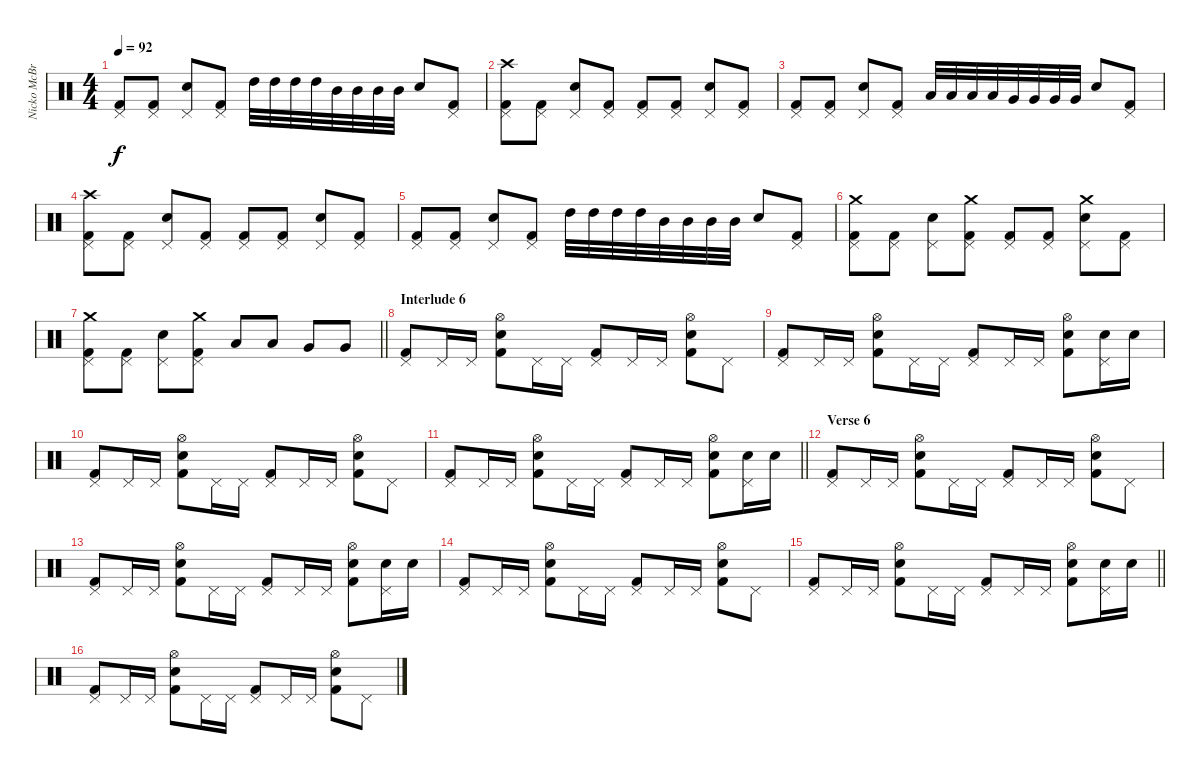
\track ("Nicko McBrain" "Nicko McBr") {instrument percussion}
\staff {score}
\articulation defaults
\ts (4 4)
\tempo 92
\clef neutral
\ks c
("Pedal Hi-Hat (hit)" "Kick (hit) 2").8{dy f} ("Pedal Hi-Hat (hit)" "Kick (hit) 2").8 ("Electric Snare (hit)" "Pedal Hi-Hat (hit)").8 ("Pedal Hi-Hat (hit)" "Kick (hit) 2").8 "High Tom (hit)".32 "High Tom (hit)".32 "High Tom (hit)".32 "High Tom (hit)".32 "Mid Tom (hit)".32 "Mid Tom (hit)".32 "Mid Tom (hit)".32 "Mid Tom (hit)".32 "Electric Snare (hit)".8 ("Pedal Hi-Hat (hit)" "Kick (hit) 2").8 |
("Pedal Hi-Hat (hit)" "Crash high (hit)" "Kick (hit) 2").8 ("Pedal Hi-Hat (hit)" "Kick (hit) 2").8 ("Electric Snare (hit)" "Pedal Hi-Hat (hit)").8 ("Pedal Hi-Hat (hit)" "Kick (hit) 2").8 ("Pedal Hi-Hat (hit)" "Kick (hit) 2").8 ("Pedal Hi-Hat (hit)" "Kick (hit) 2").8 ("Electric Snare (hit)" "Pedal Hi-Hat (hit)").8 ("Pedal Hi-Hat (hit)" "Kick (hit) 2").8 |
("Pedal Hi-Hat (hit)" "Kick (hit) 2").8 ("Pedal Hi-Hat (hit)" "Kick (hit) 2").8 ("Electric Snare (hit)" "Pedal Hi-Hat (hit)").8 ("Pedal Hi-Hat (hit)" "Kick (hit) 2").8 "Low Tom (hit)".32 "Low Tom (hit)".32 "Low Tom (hit)".32 "Low Tom (hit)".32 "Very Low Tom (hit)".32 "Very Low Tom (hit)".32 "Very Low Tom (hit)".32 "Very Low Tom (hit)".32 "Electric Snare (hit)".8 ("Pedal Hi-Hat (hit)" "Kick (hit) 2").8 |
("Pedal Hi-Hat (hit)" "Crash high (hit)" "Kick (hit) 2").8 ("Pedal Hi-Hat (hit)" "Kick (hit) 2").8 ("Electric Snare (hit)" "Pedal Hi-Hat (hit)").8 ("Pedal Hi-Hat (hit)" "Kick (hit) 2").8 ("Pedal Hi-Hat (hit)" "Kick (hit) 2").8 ("Pedal Hi-Hat (hit)" "Kick (hit) 2").8 ("Electric Snare (hit)" "Pedal Hi-Hat (hit)").8 ("Pedal Hi-Hat (hit)" "Kick (hit) 2").8 |
("Pedal Hi-Hat (hit)" "Kick (hit) 2").8 ("Pedal Hi-Hat (hit)" "Kick (hit) 2").8 ("Electric Snare (hit)" "Pedal Hi-Hat (hit)").8 ("Pedal Hi-Hat (hit)" "Kick (hit) 2").8 "High Tom (hit)".32 "High Tom (hit)".32 "High Tom (hit)".32 "High Tom (hit)".32 "Mid Tom (hit)".32 "Mid Tom (hit)".32 "Mid Tom (hit)".32 "Mid Tom (hit)".32 "Electric Snare (hit)".8 ("Pedal Hi-Hat (hit)" "Kick (hit) 2").8 |
("Pedal Hi-Hat (hit)" "Crash medium (hit)" "Kick (hit) 2").8 ("Pedal Hi-Hat (hit)" "Kick (hit) 2").8 ("Electric Snare (hit)" "Pedal Hi-Hat (hit)").8 ("Pedal Hi-Hat (hit)" "Crash medium (hit)" "Kick (hit) 2").8 ("Pedal Hi-Hat (hit)" "Kick (hit) 2").8 ("Pedal Hi-Hat (hit)" "Kick (hit) 2").8 ("Electric Snare (hit)" "Pedal Hi-Hat (hit)" "Crash medium (hit)").8 ("Pedal Hi-Hat (hit)" "Kick (hit) 2").8 |
\barLineRight lightlight
("Pedal Hi-Hat (hit)" "Crash medium (hit)" "Kick (hit) 2").8 ("Pedal Hi-Hat (hit)" "Kick (hit) 2").8 ("Electric Snare (hit)" "Pedal Hi-Hat (hit)").8 ("Pedal Hi-Hat (hit)" "Crash medium (hit)" "Kick (hit) 2").8 "Low Tom (hit)".8 "Low Tom (hit)".8 "Very Low Tom (hit)".8 "Very Low Tom (hit)".8 |
\section ("" "Interlude 6")
("Pedal Hi-Hat (hit)" "Kick (hit) 2").8 "Pedal Hi-Hat (hit)".16 "Pedal Hi-Hat (hit)".16 ("Electric Snare (hit)" "Hi-Hat (open)" "Kick (hit) 2").8 "Pedal Hi-Hat (hit)".16 "Pedal Hi-Hat (hit)".16 ("Pedal Hi-Hat (hit)" "Kick (hit) 2").8 "Pedal Hi-Hat (hit)".16 "Pedal Hi-Hat (hit)".16 ("Electric Snare (hit)" "Hi-Hat (open)" "Kick (hit) 2").8 "Pedal Hi-Hat (hit)".8 |
("Pedal Hi-Hat (hit)" "Kick (hit) 2").8 "Pedal Hi-Hat (hit)".16 "Pedal Hi-Hat (hit)".16 ("Electric Snare (hit)" "Hi-Hat (open)" "Kick (hit) 2").8 "Pedal Hi-Hat (hit)".16 "Pedal Hi-Hat (hit)".16 ("Pedal Hi-Hat (hit)" "Kick (hit) 2").8 "Pedal Hi-Hat (hit)".16 "Pedal Hi-Hat (hit)".16 ("Electric Snare (hit)" "Hi-Hat (open)" "Kick (hit) 2").8 ("Pedal Hi-Hat (hit)" "Electric Snare (hit)").16 "Electric Snare (hit)".16 |
("Pedal Hi-Hat (hit)" "Kick (hit) 2").8 "Pedal Hi-Hat (hit)".16 "Pedal Hi-Hat (hit)".16 ("Electric Snare (hit)" "Hi-Hat (open)" "Kick (hit) 2").8 "Pedal Hi-Hat (hit)".16 "Pedal Hi-Hat (hit)".16 ("Pedal Hi-Hat (hit)" "Kick (hit) 2").8 "Pedal Hi-Hat (hit)".16 "Pedal Hi-Hat (hit)".16 ("Electric Snare (hit)" "Hi-Hat (open)" "Kick (hit) 2").8 "Pedal Hi-Hat (hit)".8 |
\barLineRight lightlight
("Pedal Hi-Hat (hit)" "Kick (hit) 2").8 "Pedal Hi-Hat (hit)".16 "Pedal Hi-Hat (hit)".16 ("Electric Snare (hit)" "Hi-Hat (open)" "Kick (hit) 2").8 "Pedal Hi-Hat (hit)".16 "Pedal Hi-Hat (hit)".16 ("Pedal Hi-Hat (hit)" "Kick (hit) 2").8 "Pedal Hi-Hat (hit)".16 "Pedal Hi-Hat (hit)".16 ("Electric Snare (hit)" "Hi-Hat (open)" "Kick (hit) 2").8 ("Pedal Hi-Hat (hit)" "Electric Snare (hit)").16 "Electric Snare (hit)".16 |
\section ("" "Verse 6")
("Pedal Hi-Hat (hit)" "Kick (hit) 2").8 "Pedal Hi-Hat (hit)".16 "Pedal Hi-Hat (hit)".16 ("Electric Snare (hit)" "Hi-Hat (open)" "Kick (hit) 2").8 "Pedal Hi-Hat (hit)".16 "Pedal Hi-Hat (hit)".16 ("Pedal Hi-Hat (hit)" "Kick (hit) 2").8 "Pedal Hi-Hat (hit)".16 "Pedal Hi-Hat (hit)".16 ("Electric Snare (hit)" "Hi-Hat (open)" "Kick (hit) 2").8 "Pedal Hi-Hat (hit)".8 |
("Pedal Hi-Hat (hit)" "Kick (hit) 2").8 "Pedal Hi-Hat (hit)".16 "Pedal Hi-Hat (hit)".16 ("Electric Snare (hit)" "Hi-Hat (open)" "Kick (hit) 2").8 "Pedal Hi-Hat (hit)".16 "Pedal Hi-Hat (hit)".16 ("Pedal Hi-Hat (hit)" "Kick (hit) 2").8 "Pedal Hi-Hat (hit)".16 "Pedal Hi-Hat (hit)".16 ("Electric Snare (hit)" "Hi-Hat (open)" "Kick (hit) 2").8 ("Pedal Hi-Hat (hit)" "Electric Snare (hit)").16 "Electric Snare (hit)".16 |
("Pedal Hi-Hat (hit)" "Kick (hit) 2").8 "Pedal Hi-Hat (hit)".16 "Pedal Hi-Hat (hit)".16 ("Electric Snare (hit)" "Hi-Hat (open)" "Kick (hit) 2").8 "Pedal Hi-Hat (hit)".16 "Pedal Hi-Hat (hit)".16 ("Pedal Hi-Hat (hit)" "Kick (hit) 2").8 "Pedal Hi-Hat (hit)".16 "Pedal Hi-Hat (hit)".16 ("Electric Snare (hit)" "Hi-Hat (open)" "Kick (hit) 2").8 "Pedal Hi-Hat (hit)".8 |
\barLineRight lightlight
("Pedal Hi-Hat (hit)" "Kick (hit) 2").8 "Pedal Hi-Hat (hit)".16 "Pedal Hi-Hat (hit)".16 ("Electric Snare (hit)" "Hi-Hat (open)" "Kick (hit) 2").8 "Pedal Hi-Hat (hit)".16 "Pedal Hi-Hat (hit)".16 ("Pedal Hi-Hat (hit)" "Kick (hit) 2").8 "Pedal Hi-Hat (hit)".16 "Pedal Hi-Hat (hit)".16 ("Electric Snare (hit)" "Hi-Hat (open)" "Kick (hit) 2").8 ("Pedal Hi-Hat (hit)" "Electric Snare (hit)").16 "Electric Snare (hit)".16 |
("Pedal Hi-Hat (hit)" "Kick (hit) 2").8 "Pedal Hi-Hat (hit)".16 "Pedal Hi-Hat (hit)".16 ("Electric Snare (hit)" "Hi-Hat (open)" "Kick (hit) 2").8 "Pedal Hi-Hat (hit)".16 "Pedal Hi-Hat (hit)".16 ("Pedal Hi-Hat (hit)" "Kick (hit) 2").8 "Pedal Hi-Hat (hit)".16 "Pedal Hi-Hat (hit)".16 ("Electric Snare (hit)" "Hi-Hat (open)" "Kick (hit) 2").8 "Pedal Hi-Hat (hit)".8
